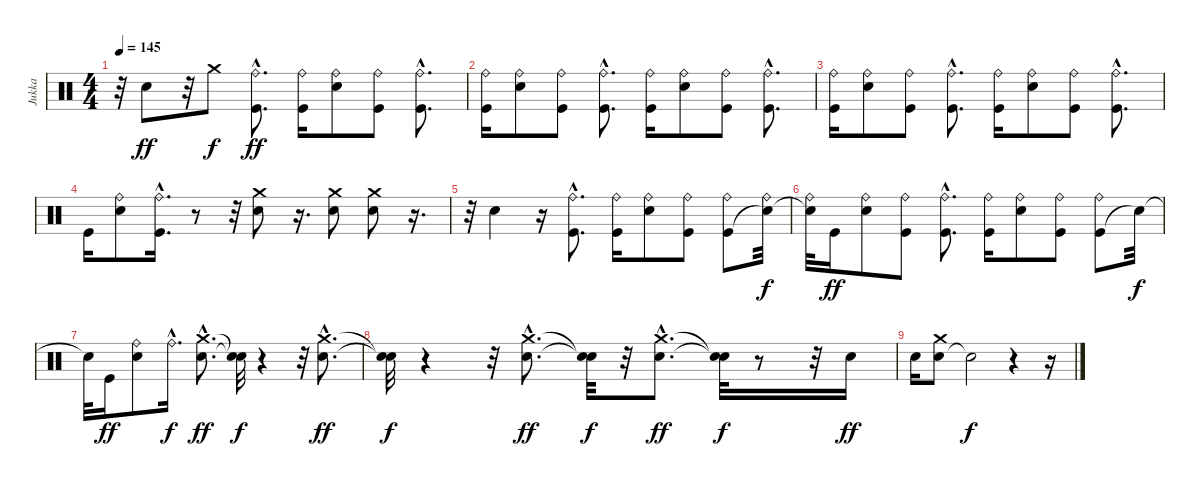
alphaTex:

\track ("Jukka" "Jukka") {instrument percussion}
\staff {score}
\articulation defaults
\ts (4 4)
\tempo 145
\clef neutral
\ks c
r.32{dy ff} "Electric Snare (hit)".8 r.32 "Crash medium (hit)".8{dy f} ("Kick (hit)"{hac} "Ride (bell)"{hac}).8{d dy ff} ("Kick (hit)" "Ride (bell)").16 ("Electric Snare (hit)" "Ride (bell)").8 ("Kick (hit)" "Ride (bell)").8 ("Kick (hit)"{hac} "Ride (bell)"{hac}).8{d} |
("Kick (hit)" "Ride (bell)").16 ("Electric Snare (hit)" "Ride (bell)").8 ("Kick (hit)" "Ride (bell)").8 ("Kick (hit)"{hac} "Ride (bell)"{hac}).8{d} ("Kick (hit)" "Ride (bell)").16 ("Electric Snare (hit)" "Ride (bell)").8 ("Kick (hit)" "Ride (bell)").8 ("Kick (hit)"{hac} "Ride (bell)"{hac}).8{d} |
("Kick (hit)" "Ride (bell)").16 ("Electric Snare (hit)" "Ride (bell)").8 ("Kick (hit)" "Ride (bell)").8 ("Kick (hit)"{hac} "Ride (bell)"{hac}).8{d} ("Kick (hit)" "Ride (bell)").16 ("Electric Snare (hit)" "Ride (bell)").8 ("Kick (hit)" "Ride (bell)").8 ("Kick (hit)"{hac} "Ride (bell)"{hac}).8{d} |
"Kick (hit)".16 ("Electric Snare (hit)" "Ride (bell)").8 ("Kick (hit)"{hac} "Ride (bell)"{hac}).16{d} r.8 r.32 ("Electric Snare (hit)" "Crash medium (hit)").8 r.16{d} ("Electric Snare (hit)" "Crash medium (hit)").8 ("Electric Snare (hit)" "Crash medium (hit)").8 r.16{d} |
r.32 "Electric Snare (hit)".4 r.16 ("Kick (hit)"{hac} "Ride (bell)"{hac}).8{d} ("Kick (hit)" "Ride (bell)").16 ("Electric Snare (hit)" "Ride (bell)").8 ("Kick (hit)" "Ride (bell)").8 ("Kick (hit)" "Ride (bell)").8 ("Snare (hit)"{t} "Ride (bell)").32{dy f} |
("Snare (hit)"{t} "Ride (bell)").32 "Kick (hit)".16{dy ff} ("Electric Snare (hit)" "Ride (bell)").8 ("Kick (hit)" "Ride (bell)").8 ("Kick (hit)"{hac} "Ride (bell)"{hac}).8{d} ("Kick (hit)" "Ride (bell)").16 ("Electric Snare (hit)" "Ride (bell)").8 ("Kick (hit)" "Ride (bell)").8 ("Kick (hit)" "Ride (bell)").8 "Snare (hit)"{t}.32{dy f} |
"Snare (hit)"{t}.32 "Kick (hit)".16{dy ff} ("Electric Snare (hit)" "Ride (bell)").8 "Ride (bell)"{hac}.16{d dy f} ("Electric Snare (hit)"{hac} "Crash medium (hit)"{hac}).8{d dy ff} ("Snare (hit)"{t} "Snare (hit)"{t}).32{dy f} r.4 r.32 ("Electric Snare (hit)"{hac} "Crash medium (hit)"{hac}).8{d dy ff} |
("Snare (hit)"{t} "Snare (hit)"{t}).32{dy f} r.4 r.32 ("Electric Snare (hit)"{hac} "Crash medium (hit)"{hac}).8{d dy ff} ("Snare (hit)"{t} "Snare (hit)"{t}).32{dy f} r.32 ("Electric Snare (hit)"{hac} "Crash medium (hit)"{hac}).8{d dy ff} ("Snare (hit)"{t} "Snare (hit)"{t}).32{dy f} r.8 r.32 "Electric Snare (hit)".16{dy ff} |
"Electric Snare (hit)".16 ("Electric Snare (hit)" "Crash medium (hit)").8 "Snare (hit)"{t}.2{dy f} r.4 r.16
